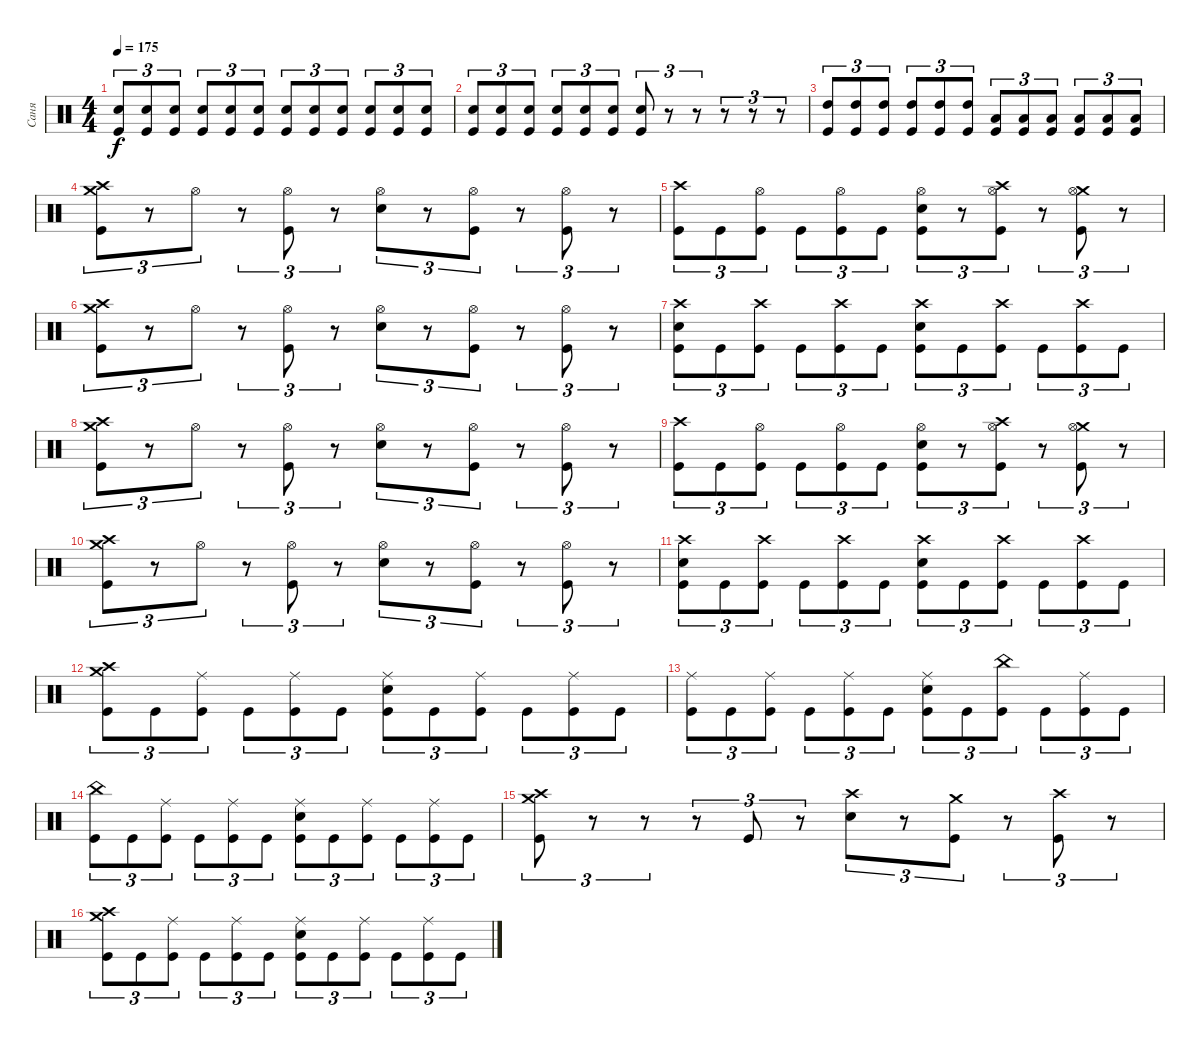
\track ("Саня" "Саня") {instrument percussion}
\staff {score}
\articulation defaults
\ts (4 4)
\tempo 175
\clef neutral
\ks c
("Electric Snare (hit)" "Kick (hit)").8{tu (3 2) dy f} ("Electric Snare (hit)" "Kick (hit)").8{tu (3 2)} ("Electric Snare (hit)" "Kick (hit)").8{tu (3 2)} ("Electric Snare (hit)" "Kick (hit)").8{tu (3 2)} ("Electric Snare (hit)" "Kick (hit)").8{tu (3 2)} ("Electric Snare (hit)" "Kick (hit)").8{tu (3 2)} ("Electric Snare (hit)" "Kick (hit)").8{tu (3 2)} ("Electric Snare (hit)" "Kick (hit)").8{tu (3 2)} ("Electric Snare (hit)" "Kick (hit)").8{tu (3 2)} ("Electric Snare (hit)" "Kick (hit)").8{tu (3 2)} ("Electric Snare (hit)" "Kick (hit)").8{tu (3 2)} ("Electric Snare (hit)" "Kick (hit)").8{tu (3 2)} |
("Electric Snare (hit)" "Kick (hit)").8{tu (3 2)} ("Electric Snare (hit)" "Kick (hit)").8{tu (3 2)} ("Electric Snare (hit)" "Kick (hit)").8{tu (3 2)} ("Electric Snare (hit)" "Kick (hit)").8{tu (3 2)} ("Electric Snare (hit)" "Kick (hit)").8{tu (3 2)} ("Electric Snare (hit)" "Kick (hit)").8{tu (3 2)} ("Electric Snare (hit)" "Kick (hit)").8{tu (3 2)} r.8{tu (3 2)} r.8{tu (3 2)} r.8{tu (3 2)} r.8{tu (3 2)} r.8{tu (3 2)} |
("High Tom (hit)" "Kick (hit)").8{tu (3 2)} ("High Tom (hit)" "Kick (hit)").8{tu (3 2)} ("High Tom (hit)" "Kick (hit)").8{tu (3 2)} ("High Tom (hit)" "Kick (hit)").8{tu (3 2)} ("High Tom (hit)" "Kick (hit)").8{tu (3 2)} ("High Tom (hit)" "Kick (hit)").8{tu (3 2)} ("Low Tom (hit)" "Kick (hit)").8{tu (3 2)} ("Low Tom (hit)" "Kick (hit)").8{tu (3 2)} ("Low Tom (hit)" "Kick (hit)").8{tu (3 2)} ("Low Tom (hit)" "Kick (hit)").8{tu (3 2)} ("Low Tom (hit)" "Kick (hit)").8{tu (3 2)} ("Low Tom (hit)" "Kick (hit)").8{tu (3 2)} |
("Crash medium (hit)" "Crash high (hit)" "Kick (hit)").8{tu (3 2)} r.8{tu (3 2)} "Hi-Hat (open)".8{tu (3 2)} r.8{tu (3 2)} ("Hi-Hat (open)" "Kick (hit)").8{tu (3 2)} r.8{tu (3 2)} ("Electric Snare (hit)" "Hi-Hat (open)").8{tu (3 2)} r.8{tu (3 2)} ("Hi-Hat (open)" "Kick (hit)").8{tu (3 2)} r.8{tu (3 2)} ("Hi-Hat (open)" "Kick (hit)").8{tu (3 2)} r.8{tu (3 2)} |
("Crash high (hit)" "Kick (hit)").8{tu (3 2)} "Kick (hit)".8{tu (3 2)} ("Hi-Hat (open)" "Kick (hit)").8{tu (3 2)} "Kick (hit)".8{tu (3 2)} ("Hi-Hat (open)" "Kick (hit)").8{tu (3 2)} "Kick (hit)".8{tu (3 2)} ("Electric Snare (hit)" "Hi-Hat (open)" "Kick (hit)").8{tu (3 2)} r.8{tu (3 2)} ("Crash high (hit)" "Hi-Hat (open)" "Kick (hit)").8{tu (3 2)} r.8{tu (3 2)} ("Crash medium (hit)" "Hi-Hat (open)" "Kick (hit)").8{tu (3 2)} r.8{tu (3 2)} |
("Crash medium (hit)" "Crash high (hit)" "Kick (hit)").8{tu (3 2)} r.8{tu (3 2)} "Hi-Hat (open)".8{tu (3 2)} r.8{tu (3 2)} ("Hi-Hat (open)" "Kick (hit)").8{tu (3 2)} r.8{tu (3 2)} ("Electric Snare (hit)" "Hi-Hat (open)").8{tu (3 2)} r.8{tu (3 2)} ("Hi-Hat (open)" "Kick (hit)").8{tu (3 2)} r.8{tu (3 2)} ("Hi-Hat (open)" "Kick (hit)").8{tu (3 2)} r.8{tu (3 2)} |
("Crash high (hit)" "Electric Snare (hit)" "Kick (hit)").8{tu (3 2)} "Kick (hit)".8{tu (3 2)} ("Crash high (hit)" "Kick (hit)").8{tu (3 2)} "Kick (hit)".8{tu (3 2)} ("Crash high (hit)" "Kick (hit)").8{tu (3 2)} "Kick (hit)".8{tu (3 2)} ("Crash high (hit)" "Electric Snare (hit)" "Kick (hit)").8{tu (3 2)} "Kick (hit)".8{tu (3 2)} ("Crash high (hit)" "Kick (hit)").8{tu (3 2)} "Kick (hit)".8{tu (3 2)} ("Crash high (hit)" "Kick (hit)").8{tu (3 2)} "Kick (hit)".8{tu (3 2)} |
("Crash medium (hit)" "Crash high (hit)" "Kick (hit)").8{tu (3 2)} r.8{tu (3 2)} "Hi-Hat (open)".8{tu (3 2)} r.8{tu (3 2)} ("Hi-Hat (open)" "Kick (hit)").8{tu (3 2)} r.8{tu (3 2)} ("Electric Snare (hit)" "Hi-Hat (open)").8{tu (3 2)} r.8{tu (3 2)} ("Hi-Hat (open)" "Kick (hit)").8{tu (3 2)} r.8{tu (3 2)} ("Hi-Hat (open)" "Kick (hit)").8{tu (3 2)} r.8{tu (3 2)} |
("Crash high (hit)" "Kick (hit)").8{tu (3 2)} "Kick (hit)".8{tu (3 2)} ("Hi-Hat (open)" "Kick (hit)").8{tu (3 2)} "Kick (hit)".8{tu (3 2)} ("Hi-Hat (open)" "Kick (hit)").8{tu (3 2)} "Kick (hit)".8{tu (3 2)} ("Electric Snare (hit)" "Hi-Hat (open)" "Kick (hit)").8{tu (3 2)} r.8{tu (3 2)} ("Crash high (hit)" "Hi-Hat (open)" "Kick (hit)").8{tu (3 2)} r.8{tu (3 2)} ("Crash medium (hit)" "Hi-Hat (open)" "Kick (hit)").8{tu (3 2)} r.8{tu (3 2)} |
("Crash medium (hit)" "Crash high (hit)" "Kick (hit)").8{tu (3 2)} r.8{tu (3 2)} "Hi-Hat (open)".8{tu (3 2)} r.8{tu (3 2)} ("Hi-Hat (open)" "Kick (hit)").8{tu (3 2)} r.8{tu (3 2)} ("Electric Snare (hit)" "Hi-Hat (open)").8{tu (3 2)} r.8{tu (3 2)} ("Hi-Hat (open)" "Kick (hit)").8{tu (3 2)} r.8{tu (3 2)} ("Hi-Hat (open)" "Kick (hit)").8{tu (3 2)} r.8{tu (3 2)} |
("Crash high (hit)" "Electric Snare (hit)" "Kick (hit)").8{tu (3 2)} "Kick (hit)".8{tu (3 2)} ("Crash high (hit)" "Kick (hit)").8{tu (3 2)} "Kick (hit)".8{tu (3 2)} ("Crash high (hit)" "Kick (hit)").8{tu (3 2)} "Kick (hit)".8{tu (3 2)} ("Crash high (hit)" "Electric Snare (hit)" "Kick (hit)").8{tu (3 2)} "Kick (hit)".8{tu (3 2)} ("Crash high (hit)" "Kick (hit)").8{tu (3 2)} "Kick (hit)".8{tu (3 2)} ("Crash high (hit)" "Kick (hit)").8{tu (3 2)} "Kick (hit)".8{tu (3 2)} |
("Crash medium (hit)" "Crash high (hit)" "Kick (hit)").8{tu (3 2)} "Kick (hit)".8{tu (3 2)} ("Ride (middle)" "Kick (hit)").8{tu (3 2)} "Kick (hit)".8{tu (3 2)} ("Ride (middle)" "Kick (hit)").8{tu (3 2)} "Kick (hit)".8{tu (3 2)} ("Ride (middle)" "Electric Snare (hit)" "Kick (hit)").8{tu (3 2)} "Kick (hit)".8{tu (3 2)} ("Ride (middle)" "Kick (hit)").8{tu (3 2)} "Kick (hit)".8{tu (3 2)} ("Ride (middle)" "Kick (hit)").8{tu (3 2)} "Kick (hit)".8{tu (3 2)} |
("Ride (middle)" "Kick (hit)").8{tu (3 2)} "Kick (hit)".8{tu (3 2)} ("Ride (middle)" "Kick (hit)").8{tu (3 2)} "Kick (hit)".8{tu (3 2)} ("Ride (middle)" "Kick (hit)").8{tu (3 2)} "Kick (hit)".8{tu (3 2)} ("Ride (middle)" "Electric Snare (hit)" "Kick (hit)").8{tu (3 2)} "Kick (hit)".8{tu (3 2)} ("China (hit)" "Kick (hit)").8{tu (3 2)} "Kick (hit)".8{tu (3 2)} ("Ride (middle)" "Kick (hit)").8{tu (3 2)} "Kick (hit)".8{tu (3 2)} |
("China (hit)" "Kick (hit)").8{tu (3 2)} "Kick (hit)".8{tu (3 2)} ("Ride (middle)" "Kick (hit)").8{tu (3 2)} "Kick (hit)".8{tu (3 2)} ("Ride (middle)" "Kick (hit)").8{tu (3 2)} "Kick (hit)".8{tu (3 2)} ("Ride (middle)" "Electric Snare (hit)" "Kick (hit)").8{tu (3 2)} "Kick (hit)".8{tu (3 2)} ("Ride (middle)" "Kick (hit)").8{tu (3 2)} "Kick (hit)".8{tu (3 2)} ("Ride (middle)" "Kick (hit)").8{tu (3 2)} "Kick (hit)".8{tu (3 2)} |
("Crash medium (hit)" "Crash high (hit)" "Kick (hit)").8{tu (3 2)} r.8{tu (3 2)} r.8{tu (3 2)} r.8{tu (3 2)} "Kick (hit)".8{tu (3 2)} r.8{tu (3 2)} ("Crash high (hit)" "Electric Snare (hit)").8{tu (3 2)} r.8{tu (3 2)} ("Crash medium (hit)" "Kick (hit)").8{tu (3 2)} r.8{tu (3 2)} ("Crash high (hit)" "Kick (hit)").8{tu (3 2)} r.8{tu (3 2)} |
("Crash medium (hit)" "Crash high (hit)" "Kick (hit)").8{tu (3 2)} "Kick (hit)".8{tu (3 2)} ("Ride (middle)" "Kick (hit)").8{tu (3 2)} "Kick (hit)".8{tu (3 2)} ("Ride (middle)" "Kick (hit)").8{tu (3 2)} "Kick (hit)".8{tu (3 2)} ("Ride (middle)" "Electric Snare (hit)" "Kick (hit)").8{tu (3 2)} "Kick (hit)".8{tu (3 2)} ("Ride (middle)" "Kick (hit)").8{tu (3 2)} "Kick (hit)".8{tu (3 2)} ("Ride (middle)" "Kick (hit)").8{tu (3 2)} "Kick (hit)".8{tu (3 2)}
